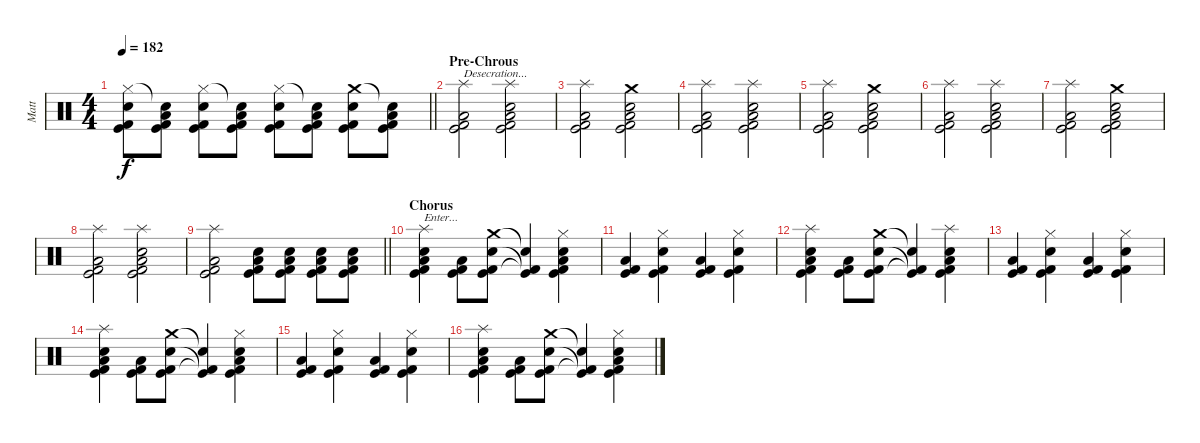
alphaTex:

\track ("Matt" "Matt") {instrument percussion}
\staff {score}
\articulation defaults
\ts (4 4)
\tempo 182
\clef neutral
\barLineRight lightlight
\ks c
("Hi-Hat (closed)" "Electric Snare (hit)" "Kick (hit)" "Kick (hit) 2").8{dy f} ("Snare (hit)"{t} "Low Floor Tom (hit)" "Kick (hit)" "Kick (hit) 2").8 ("Hi-Hat (closed)" "Electric Snare (hit)" "Kick (hit)" "Kick (hit) 2").8 ("Snare (hit)"{t} "Low Floor Tom (hit)" "Kick (hit)" "Kick (hit) 2").8 ("Hi-Hat (closed)" "Electric Snare (hit)" "Kick (hit)" "Kick (hit) 2").8 ("Snare (hit)"{t} "Low Floor Tom (hit)" "Kick (hit)" "Kick (hit) 2").8 ("Crash medium (hit)" "Electric Snare (hit)" "Kick (hit)" "Kick (hit) 2").8 ("Snare (hit)"{t} "Low Floor Tom (hit)" "Kick (hit)" "Kick (hit) 2").8 |
\section ("" "Pre-Chrous")
("Splash (hit)" "Low Floor Tom (hit)" "Kick (hit)" "Kick (hit) 2").2{txt "Desecration..."} ("Splash (hit)" "Electric Snare (hit)" "Low Floor Tom (hit)" "Kick (hit)" "Kick (hit) 2").2 |
("Splash (hit)" "Low Floor Tom (hit)" "Kick (hit)" "Kick (hit) 2").2 ("Crash medium (hit)" "Electric Snare (hit)" "Low Floor Tom (hit)" "Kick (hit)" "Kick (hit) 2").2 |
("Splash (hit)" "Low Floor Tom (hit)" "Kick (hit)" "Kick (hit) 2").2 ("Splash (hit)" "Electric Snare (hit)" "Low Floor Tom (hit)" "Kick (hit)" "Kick (hit) 2").2 |
("Splash (hit)" "Low Floor Tom (hit)" "Kick (hit)" "Kick (hit) 2").2 ("Crash medium (hit)" "Electric Snare (hit)" "Low Floor Tom (hit)" "Kick (hit)" "Kick (hit) 2").2 |
("Splash (hit)" "Low Floor Tom (hit)" "Kick (hit)" "Kick (hit) 2").2 ("Splash (hit)" "Electric Snare (hit)" "Low Floor Tom (hit)" "Kick (hit)" "Kick (hit) 2").2 |
("Splash (hit)" "Low Floor Tom (hit)" "Kick (hit)" "Kick (hit) 2").2 ("Crash medium (hit)" "Electric Snare (hit)" "Low Floor Tom (hit)" "Kick (hit)" "Kick (hit) 2").2 |
("Splash (hit)" "Low Floor Tom (hit)" "Kick (hit)" "Kick (hit) 2").2 ("Splash (hit)" "Electric Snare (hit)" "Low Floor Tom (hit)" "Kick (hit)" "Kick (hit) 2").2 |
\barLineRight lightlight
("Splash (hit)" "Low Floor Tom (hit)" "Kick (hit)" "Kick (hit) 2").2 ("Electric Snare (hit)" "Low Floor Tom (hit)" "Kick (hit)" "Kick (hit) 2").8 ("Electric Snare (hit)" "Low Floor Tom (hit)" "Kick (hit)" "Kick (hit) 2").8 ("Electric Snare (hit)" "Low Floor Tom (hit)" "Kick (hit)" "Kick (hit) 2").8 ("Electric Snare (hit)" "Low Floor Tom (hit)" "Kick (hit)" "Kick (hit) 2").8 |
\section ("" "Chorus")
("Splash (hit)" "Electric Snare (hit)" "Low Floor Tom (hit)" "Kick (hit)" "Kick (hit) 2").4{txt "Enter..."} ("Low Floor Tom (hit)" "Kick (hit)" "Kick (hit) 2").8 ("Crash medium (hit)" "Electric Snare (hit)" "Kick (hit)" "Kick (hit) 2").8 ("Electric Snare (hit)"{t} "Kick (hit)"{t} "Kick (hit) 2"{t}).4 ("Hi-Hat (closed)" "Electric Snare (hit)" "Low Floor Tom (hit)" "Kick (hit)" "Kick (hit) 2").4 |
("Low Floor Tom (hit)" "Kick (hit)" "Kick (hit) 2").4 ("Hi-Hat (closed)" "Electric Snare (hit)" "Kick (hit)" "Kick (hit) 2").4 ("Low Floor Tom (hit)" "Kick (hit)" "Kick (hit) 2").4 ("Hi-Hat (closed)" "Electric Snare (hit)" "Kick (hit)" "Kick (hit) 2").4 |
("Splash (hit)" "Electric Snare (hit)" "Low Floor Tom (hit)" "Kick (hit)" "Kick (hit) 2").4 ("Low Floor Tom (hit)" "Kick (hit)" "Kick (hit) 2").8 ("Crash medium (hit)" "Electric Snare (hit)" "Kick (hit)" "Kick (hit) 2").8 ("Electric Snare (hit)"{t} "Kick (hit)"{t} "Kick (hit) 2"{t}).4 ("Splash (hit)" "Electric Snare (hit)" "Low Floor Tom (hit)" "Kick (hit)" "Kick (hit) 2").4 |
("Low Floor Tom (hit)" "Kick (hit)" "Kick (hit) 2").4 ("Hi-Hat (closed)" "Electric Snare (hit)" "Kick (hit)" "Kick (hit) 2").4 ("Low Floor Tom (hit)" "Kick (hit)" "Kick (hit) 2").4 ("Hi-Hat (closed)" "Electric Snare (hit)" "Kick (hit)" "Kick (hit) 2").4 |
("Splash (hit)" "Electric Snare (hit)" "Low Floor Tom (hit)" "Kick (hit)" "Kick (hit) 2").4 ("Low Floor Tom (hit)" "Kick (hit)" "Kick (hit) 2").8 ("Crash medium (hit)" "Electric Snare (hit)" "Kick (hit)" "Kick (hit) 2").8 ("Electric Snare (hit)"{t} "Kick (hit)"{t} "Kick (hit) 2"{t}).4 ("Hi-Hat (closed)" "Electric Snare (hit)" "Low Floor Tom (hit)" "Kick (hit)" "Kick (hit) 2").4 |
("Low Floor Tom (hit)" "Kick (hit)" "Kick (hit) 2").4 ("Hi-Hat (closed)" "Electric Snare (hit)" "Kick (hit)" "Kick (hit) 2").4 ("Low Floor Tom (hit)" "Kick (hit)" "Kick (hit) 2").4 ("Hi-Hat (closed)" "Electric Snare (hit)" "Kick (hit)" "Kick (hit) 2").4 |
("Splash (hit)" "Electric Snare (hit)" "Low Floor Tom (hit)" "Kick (hit)" "Kick (hit) 2").4 ("Low Floor Tom (hit)" "Kick (hit)" "Kick (hit) 2").8 ("Crash medium (hit)" "Electric Snare (hit)" "Kick (hit)" "Kick (hit) 2").8 ("Electric Snare (hit)"{t} "Kick (hit)"{t} "Kick (hit) 2"{t}).4 ("Hi-Hat (closed)" "Electric Snare (hit)" "Low Floor Tom (hit)" "Kick (hit)" "Kick (hit) 2").4
